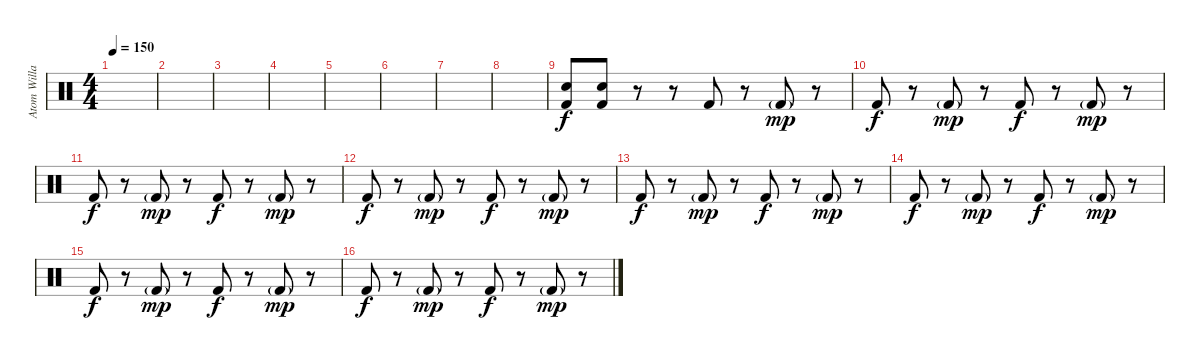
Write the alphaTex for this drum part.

\track ("Atom Willard Drums" "Atom Willa") {instrument percussion}
\staff {score}
\articulation defaults
\ts (4 4)
\tempo 150
\clef neutral
\ks c
|
|
|
|
|
|
|
|
("Electric Snare (hit)" "Kick (hit) 2").8 ("Electric Snare (hit)" "Kick (hit) 2").8 r.8 r.8 "Kick (hit) 2".8 r.8 "Kick (hit) 2"{g}.8{dy mp} r.8 |
"Kick (hit) 2".8{dy f} r.8 "Kick (hit) 2"{g}.8{dy mp} r.8 "Kick (hit) 2".8{dy f} r.8 "Kick (hit) 2"{g}.8{dy mp} r.8 |
"Kick (hit) 2".8{dy f} r.8 "Kick (hit) 2"{g}.8{dy mp} r.8 "Kick (hit) 2".8{dy f} r.8 "Kick (hit) 2"{g}.8{dy mp} r.8 |
"Kick (hit) 2".8{dy f} r.8 "Kick (hit) 2"{g}.8{dy mp} r.8 "Kick (hit) 2".8{dy f} r.8 "Kick (hit) 2"{g}.8{dy mp} r.8 |
"Kick (hit) 2".8{dy f} r.8 "Kick (hit) 2"{g}.8{dy mp} r.8 "Kick (hit) 2".8{dy f} r.8 "Kick (hit) 2"{g}.8{dy mp} r.8 |
"Kick (hit) 2".8{dy f} r.8 "Kick (hit) 2"{g}.8{dy mp} r.8 "Kick (hit) 2".8{dy f} r.8 "Kick (hit) 2"{g}.8{dy mp} r.8 |
"Kick (hit) 2".8{dy f} r.8 "Kick (hit) 2"{g}.8{dy mp} r.8 "Kick (hit) 2".8{dy f} r.8 "Kick (hit) 2"{g}.8{dy mp} r.8 |
"Kick (hit) 2".8{dy f} r.8 "Kick (hit) 2"{g}.8{dy mp} r.8 "Kick (hit) 2".8{dy f} r.8 "Kick (hit) 2"{g}.8{dy mp} r.8
